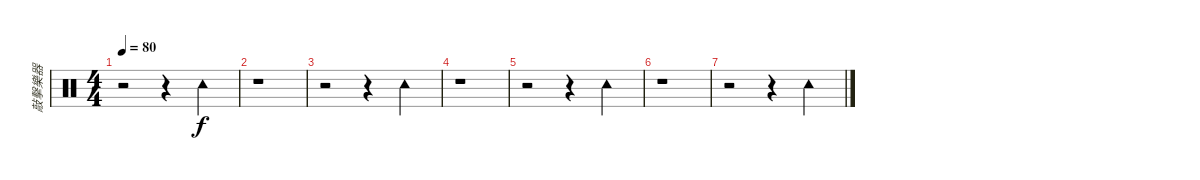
\track ("敲擊樂器" "敲擊樂器") {instrument percussion}
\staff {score}
\articulation defaults
\ts (4 4)
\tempo 80
\clef neutral
\ks c
r.2{dy f} r.4 "Tambourine (hit)".4 |
r.1 |
r.2 r.4 "Tambourine (hit)".4 |
r.1 |
r.2 r.4 "Tambourine (hit)".4 |
r.1 |
r.2 r.4 "Tambourine (hit)".4
